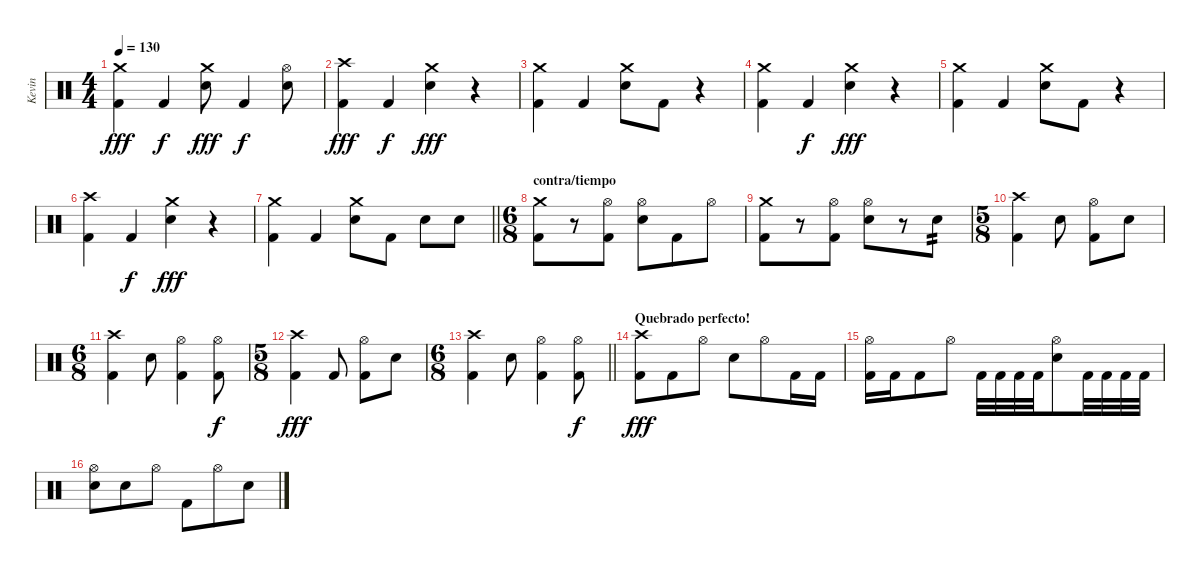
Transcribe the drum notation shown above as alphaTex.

\track ("Kevin" "Kevin") {instrument percussion}
\staff {score}
\articulation defaults
\ts (4 4)
\tempo 130
\clef neutral
\ks c
("Crash medium (hit)" "Kick (hit) 2").4{dy fff} "Kick (hit) 2".4{dy f} ("Crash medium (hit)" "Snare (hit) 2").8{dy fff} "Kick (hit) 2".4{dy f} ("Hi-Hat (open)" "Snare (hit) 2").8 |
("Crash high (hit)" "Kick (hit) 2").4{dy fff} "Kick (hit) 2".4{dy f} ("Crash medium (hit)" "Snare (hit) 2").4{dy fff} r.4 |
("Crash medium (hit)" "Kick (hit) 2").4 "Kick (hit) 2".4 ("Crash medium (hit)" "Snare (hit) 2").8 "Kick (hit) 2".8 r.4 |
("Crash medium (hit)" "Kick (hit) 2").4 "Kick (hit) 2".4{dy f} ("Crash medium (hit)" "Snare (hit) 2").4{dy fff} r.4 |
("Crash medium (hit)" "Kick (hit) 2").4 "Kick (hit) 2".4 ("Crash medium (hit)" "Snare (hit) 2").8 "Kick (hit) 2".8 r.4 |
("Crash high (hit)" "Kick (hit) 2").4 "Kick (hit) 2".4{dy f} ("Crash medium (hit)" "Snare (hit) 2").4{dy fff} r.4 |
\barLineRight lightlight
("Crash medium (hit)" "Kick (hit) 2").4 "Kick (hit) 2".4 ("Crash medium (hit)" "Snare (hit) 2").8 "Kick (hit) 2".8 "Snare (hit) 2".8 "Snare (hit) 2".8 |
\ts (6 8)
\section ("" "contra/tiempo")
("Crash medium (hit)" "Kick (hit) 2").8 r.8 ("Hi-Hat (open)" "Kick (hit) 2").8 ("Snare (hit) 2" "Hi-Hat (open)").8 "Kick (hit) 2".8 "Hi-Hat (open)".8 |
("Crash medium (hit)" "Kick (hit) 2").8 r.8 ("Hi-Hat (open)" "Kick (hit) 2").8 ("Snare (hit) 2" "Hi-Hat (open)").8 r.8 "Snare (hit) 2".8{tp 2} |
\ts (5 8)
("Crash high (hit)" "Kick (hit) 2").4 "Snare (hit) 2".8 ("Hi-Hat (open)" "Kick (hit) 2").8 "Snare (hit) 2".8 |
\ts (6 8)
("Crash high (hit)" "Kick (hit) 2").4 "Snare (hit) 2".8 ("Hi-Hat (open)" "Kick (hit) 2").4 ("Hi-Hat (open)" "Kick (hit) 2").8{dy f} |
\ts (5 8)
("Crash high (hit)" "Kick (hit) 2").4{dy fff} "Kick (hit) 2".8 ("Hi-Hat (open)" "Kick (hit) 2").8 "Snare (hit) 2".8 |
\ts (6 8)
\barLineRight lightlight
("Crash high (hit)" "Kick (hit) 2").4 "Snare (hit) 2".8 ("Hi-Hat (open)" "Kick (hit) 2").4 ("Hi-Hat (open)" "Kick (hit) 2").8{dy f} |
\section ("" "Quebrado perfecto!")
("Crash high (hit)" "Kick (hit) 2").8{dy fff} "Kick (hit) 2".8 "Hi-Hat (open)".8 "Electric Snare (hit)".8 "Hi-Hat (open)".8 "Kick (hit) 2".16 "Kick (hit) 2".16 |
("Hi-Hat (open)" "Kick (hit) 2").16 "Kick (hit) 2".16 "Kick (hit) 2".8 "Hi-Hat (open)".8 "Kick (hit) 2".32 "Kick (hit) 2".32 "Kick (hit) 2".32 "Kick (hit) 2".32 ("Electric Snare (hit)" "Hi-Hat (open)").8 "Kick (hit) 2".32 "Kick (hit) 2".32 "Kick (hit) 2".32 "Kick (hit) 2".32 |
("Electric Snare (hit)" "Hi-Hat (open)").8 "Electric Snare (hit)".8 "Hi-Hat (open)".8 "Kick (hit) 2".8 "Hi-Hat (open)".8 "Electric Snare (hit)".8
